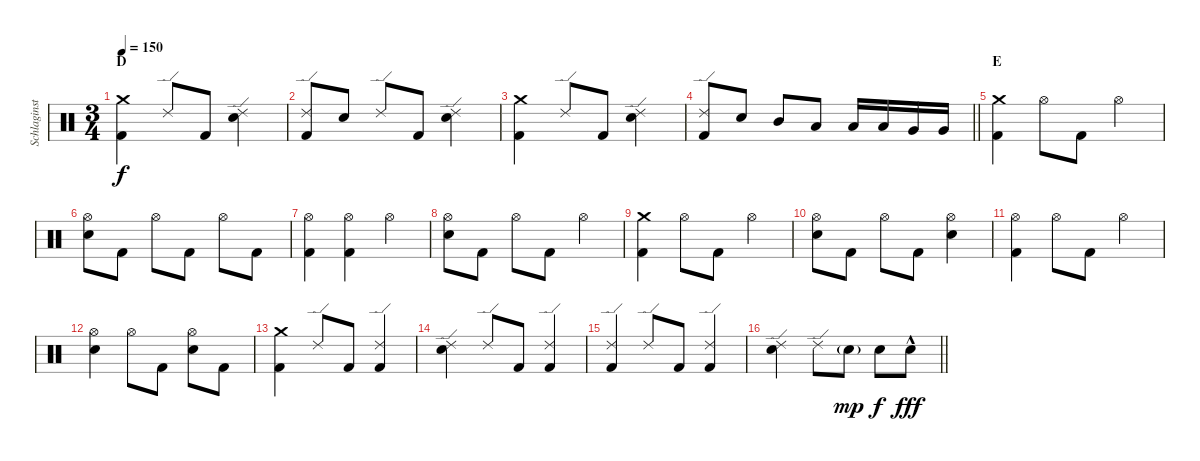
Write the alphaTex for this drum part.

\track ("Schlaginstrumente - Auswahl" "Schlaginst") {instrument percussion}
\staff {score}
\articulation defaults
\ts (3 4)
\section ("" "D")
\tempo 150
\clef neutral
\ks c
("Crash medium (hit)" "Kick (hit) 2").4{dy f} "Ride (edge) 2".8 "Kick (hit) 2".8 ("Ride (edge) 2" "Electric Snare (hit)").4 |
("Ride (edge) 2" "Kick (hit) 2").8 "Electric Snare (hit)".8 "Ride (edge) 2".8 "Kick (hit) 2".8 ("Ride (edge) 2" "Electric Snare (hit)").4 |
("Crash medium (hit)" "Kick (hit) 2").4 "Ride (edge) 2".8 "Kick (hit) 2".8 ("Ride (edge) 2" "Electric Snare (hit)").4 |
\barLineRight lightlight
("Ride (edge) 2" "Kick (hit) 2").8 "Electric Snare (hit)".8 "Mid Tom (hit)".8 "Low Tom (hit)".8 "Low Tom (hit)".16 "Low Tom (hit)".16 "Very Low Tom (hit)".16 "Very Low Tom (hit)".16 |
\section ("" "E")
("Crash medium (hit)" "Kick (hit) 2").4 "Hi-Hat (open)".8 "Kick (hit) 2".8 "Hi-Hat (open)".4 |
("Hi-Hat (open)" "Electric Snare (hit)").8 "Kick (hit) 2".8 "Hi-Hat (open)".8 "Kick (hit) 2".8 "Hi-Hat (open)".8 "Kick (hit) 2".8 |
("Hi-Hat (open)" "Kick (hit) 2").4 ("Hi-Hat (open)" "Kick (hit) 2").4 "Hi-Hat (open)".4 |
("Hi-Hat (open)" "Electric Snare (hit)").8 "Kick (hit) 2".8 "Hi-Hat (open)".8 "Kick (hit) 2".8 "Hi-Hat (open)".4 |
("Crash medium (hit)" "Kick (hit) 2").4 "Hi-Hat (open)".8 "Kick (hit) 2".8 "Hi-Hat (open)".4 |
("Hi-Hat (open)" "Electric Snare (hit)").8 "Kick (hit) 2".8 "Hi-Hat (open)".8 "Kick (hit) 2".8 ("Hi-Hat (open)" "Electric Snare (hit)").4 |
("Hi-Hat (open)" "Kick (hit) 2").4 "Hi-Hat (open)".8 "Kick (hit) 2".8 "Hi-Hat (open)".4 |
("Hi-Hat (open)" "Electric Snare (hit)").4 "Hi-Hat (open)".8 "Kick (hit) 2".8 ("Hi-Hat (open)" "Electric Snare (hit)").8 "Kick (hit) 2".8 |
("Crash medium (hit)" "Kick (hit) 2").4 "Ride (edge) 2".8 "Kick (hit) 2".8 ("Ride (edge) 2" "Kick (hit) 2").4 |
("Ride (edge) 2" "Electric Snare (hit)").4 "Ride (edge) 2".8 "Kick (hit) 2".8 ("Ride (edge) 2" "Kick (hit) 2").4 |
("Ride (edge) 2" "Kick (hit) 2").4 "Ride (edge) 2".8 "Kick (hit) 2".8 ("Ride (edge) 2" "Kick (hit) 2").4 |
\barLineRight lightlight
("Ride (edge) 2" "Electric Snare (hit)").4 "Ride (edge) 2".8 "Electric Snare (hit)"{g}.8{dy mp} "Electric Snare (hit)".8{dy f} "Electric Snare (hit)"{hac}.8{dy fff}
